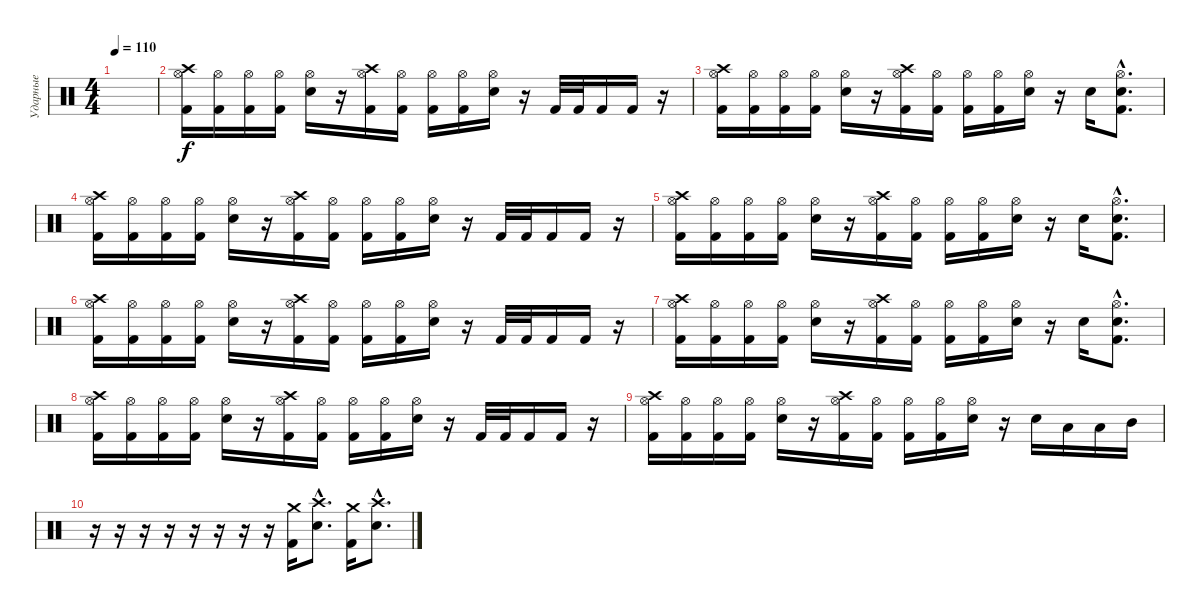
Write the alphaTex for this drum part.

\track ("Ударные" "Ударные") {instrument percussion}
\staff {score}
\articulation defaults
\ts (4 4)
\tempo 110
\clef neutral
\ks c
|
("Hi-Hat (open)" "Crash high (hit)" "Kick (hit) 2").16{volume 16} ("Hi-Hat (open)" "Kick (hit) 2").16 ("Hi-Hat (open)" "Kick (hit) 2").16 ("Hi-Hat (open)" "Kick (hit) 2").16 ("Hi-Hat (open)" "Electric Snare (hit)").16 r.16 ("Hi-Hat (open)" "Crash high (hit)" "Kick (hit) 2").16 ("Hi-Hat (open)" "Kick (hit) 2").16 ("Hi-Hat (open)" "Kick (hit) 2").16 ("Hi-Hat (open)" "Kick (hit) 2").16 ("Hi-Hat (open)" "Electric Snare (hit)").16 r.16 "Kick (hit) 2".32 "Kick (hit) 2".32 "Kick (hit) 2".16 "Kick (hit) 2".16 r.16 |
("Hi-Hat (open)" "Crash high (hit)" "Kick (hit) 2").16 ("Hi-Hat (open)" "Kick (hit) 2").16 ("Hi-Hat (open)" "Kick (hit) 2").16 ("Hi-Hat (open)" "Kick (hit) 2").16 ("Hi-Hat (open)" "Electric Snare (hit)").16 r.16 ("Hi-Hat (open)" "Crash high (hit)" "Kick (hit) 2").16 ("Hi-Hat (open)" "Kick (hit) 2").16 ("Hi-Hat (open)" "Kick (hit) 2").16 ("Hi-Hat (open)" "Kick (hit) 2").16 ("Hi-Hat (open)" "Electric Snare (hit)").16 r.16 "Electric Snare (hit)".16 ("Hi-Hat (open)"{hac} "Electric Snare (hit)"{hac} "Kick (hit) 2"{hac}).8{d} |
("Hi-Hat (open)" "Crash high (hit)" "Kick (hit) 2").16 ("Hi-Hat (open)" "Kick (hit) 2").16 ("Hi-Hat (open)" "Kick (hit) 2").16 ("Hi-Hat (open)" "Kick (hit) 2").16 ("Hi-Hat (open)" "Electric Snare (hit)").16 r.16 ("Hi-Hat (open)" "Crash high (hit)" "Kick (hit) 2").16 ("Hi-Hat (open)" "Kick (hit) 2").16 ("Hi-Hat (open)" "Kick (hit) 2").16 ("Hi-Hat (open)" "Kick (hit) 2").16 ("Hi-Hat (open)" "Electric Snare (hit)").16 r.16 "Kick (hit) 2".32 "Kick (hit) 2".32 "Kick (hit) 2".16 "Kick (hit) 2".16 r.16 |
("Hi-Hat (open)" "Crash high (hit)" "Kick (hit) 2").16 ("Hi-Hat (open)" "Kick (hit) 2").16 ("Hi-Hat (open)" "Kick (hit) 2").16 ("Hi-Hat (open)" "Kick (hit) 2").16 ("Hi-Hat (open)" "Electric Snare (hit)").16 r.16 ("Hi-Hat (open)" "Crash high (hit)" "Kick (hit) 2").16 ("Hi-Hat (open)" "Kick (hit) 2").16 ("Hi-Hat (open)" "Kick (hit) 2").16 ("Hi-Hat (open)" "Kick (hit) 2").16 ("Hi-Hat (open)" "Electric Snare (hit)").16 r.16 "Electric Snare (hit)".16 ("Hi-Hat (open)"{hac} "Electric Snare (hit)"{hac} "Kick (hit) 2"{hac}).8{d} |
("Hi-Hat (open)" "Crash high (hit)" "Kick (hit) 2").16 ("Hi-Hat (open)" "Kick (hit) 2").16 ("Hi-Hat (open)" "Kick (hit) 2").16 ("Hi-Hat (open)" "Kick (hit) 2").16 ("Hi-Hat (open)" "Electric Snare (hit)").16 r.16 ("Hi-Hat (open)" "Crash high (hit)" "Kick (hit) 2").16 ("Hi-Hat (open)" "Kick (hit) 2").16 ("Hi-Hat (open)" "Kick (hit) 2").16 ("Hi-Hat (open)" "Kick (hit) 2").16 ("Hi-Hat (open)" "Electric Snare (hit)").16 r.16 "Kick (hit) 2".32 "Kick (hit) 2".32 "Kick (hit) 2".16 "Kick (hit) 2".16 r.16 |
("Hi-Hat (open)" "Crash high (hit)" "Kick (hit) 2").16 ("Hi-Hat (open)" "Kick (hit) 2").16 ("Hi-Hat (open)" "Kick (hit) 2").16 ("Hi-Hat (open)" "Kick (hit) 2").16 ("Hi-Hat (open)" "Electric Snare (hit)").16 r.16 ("Hi-Hat (open)" "Crash high (hit)" "Kick (hit) 2").16 ("Hi-Hat (open)" "Kick (hit) 2").16 ("Hi-Hat (open)" "Kick (hit) 2").16 ("Hi-Hat (open)" "Kick (hit) 2").16 ("Hi-Hat (open)" "Electric Snare (hit)").16 r.16 "Electric Snare (hit)".16 ("Hi-Hat (open)"{hac} "Electric Snare (hit)"{hac} "Kick (hit) 2"{hac}).8{d} |
("Hi-Hat (open)" "Crash high (hit)" "Kick (hit) 2").16 ("Hi-Hat (open)" "Kick (hit) 2").16 ("Hi-Hat (open)" "Kick (hit) 2").16 ("Hi-Hat (open)" "Kick (hit) 2").16 ("Hi-Hat (open)" "Electric Snare (hit)").16 r.16 ("Hi-Hat (open)" "Crash high (hit)" "Kick (hit) 2").16 ("Hi-Hat (open)" "Kick (hit) 2").16 ("Hi-Hat (open)" "Kick (hit) 2").16 ("Hi-Hat (open)" "Kick (hit) 2").16 ("Hi-Hat (open)" "Electric Snare (hit)").16 r.16 "Kick (hit) 2".32 "Kick (hit) 2".32 "Kick (hit) 2".16 "Kick (hit) 2".16 r.16 |
("Hi-Hat (open)" "Crash high (hit)" "Kick (hit) 2").16 ("Hi-Hat (open)" "Kick (hit) 2").16 ("Hi-Hat (open)" "Kick (hit) 2").16 ("Hi-Hat (open)" "Kick (hit) 2").16 ("Hi-Hat (open)" "Electric Snare (hit)").16 r.16 ("Hi-Hat (open)" "Crash high (hit)" "Kick (hit) 2").16 ("Hi-Hat (open)" "Kick (hit) 2").16 ("Hi-Hat (open)" "Kick (hit) 2").16 ("Hi-Hat (open)" "Kick (hit) 2").16 ("Hi-Hat (open)" "Electric Snare (hit)").16 r.16 "Electric Snare (hit)".16 "Low Tom (hit)".16 "Low Tom (hit)".16 "Mid Tom (hit)".16 |
r.16 r.16 r.16 r.16 r.16 r.16 r.16 r.16 ("Crash medium (hit)" "Kick (hit) 2").16 ("Crash high (hit)"{hac} "Electric Snare (hit)"{hac}).8{d} ("Crash medium (hit)" "Kick (hit) 2").16 ("Crash high (hit)"{hac} "Electric Snare (hit)"{hac}).8{d}
